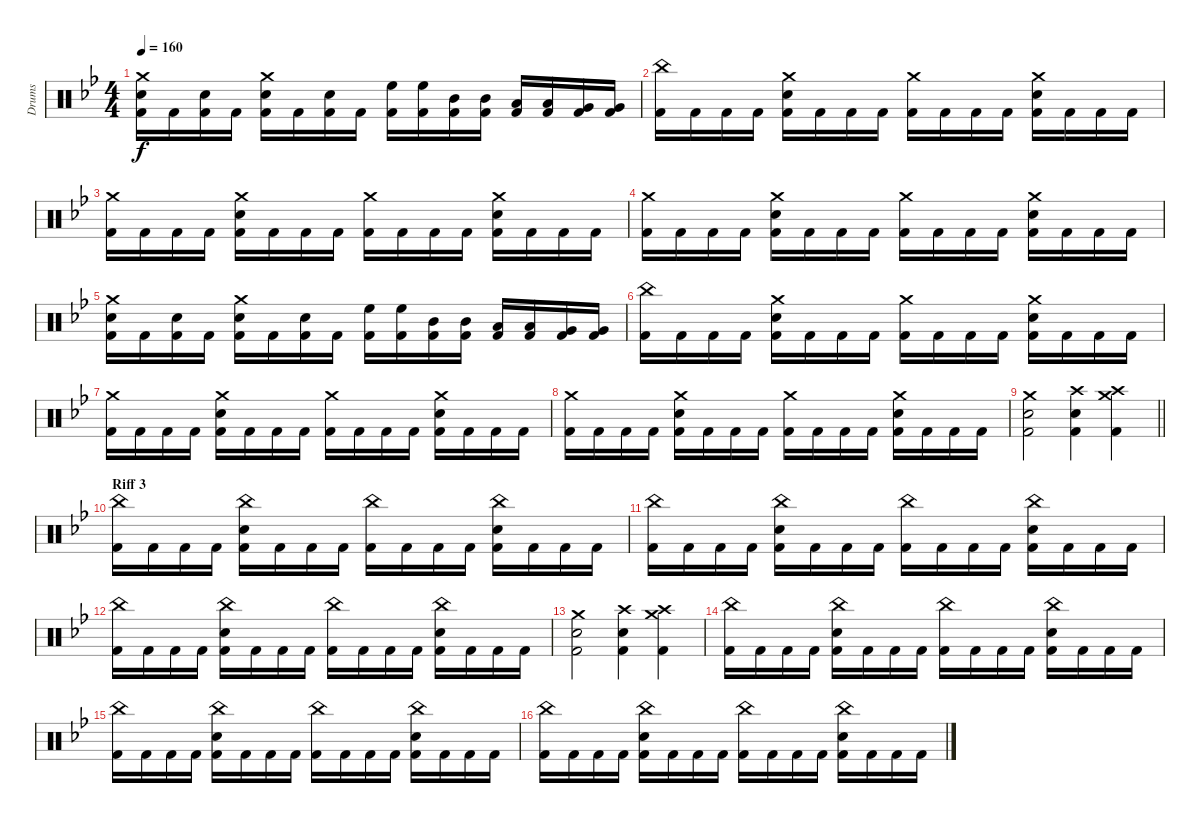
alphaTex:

\track ("Drums" "Drums") {instrument percussion}
\staff {score}
\articulation defaults
\ts (4 4)
\tempo 160
\clef neutral
\ks bb
("Crash medium (hit)" "Electric Snare (hit)" "Kick (hit) 2").16{dy f} "Kick (hit) 2".16 ("Electric Snare (hit)" "Kick (hit) 2").16 "Kick (hit) 2".16 ("Crash medium (hit)" "Electric Snare (hit)" "Kick (hit) 2").16 "Kick (hit) 2".16 ("Electric Snare (hit)" "Kick (hit) 2").16 "Kick (hit) 2".16 ("High Floor Tom (hit)" "Kick (hit) 2").16 ("High Floor Tom (hit)" "Kick (hit) 2").16 ("Mid Tom (hit)" "Kick (hit) 2").16 ("Mid Tom (hit)" "Kick (hit) 2").16 ("Low Tom (hit)" "Kick (hit) 2").16 ("Low Tom (hit)" "Kick (hit) 2").16 ("Very Low Tom (hit)" "Kick (hit) 2").16 ("Very Low Tom (hit)" "Kick (hit) 2").16 |
("China (hit)" "Kick (hit) 2").16 "Kick (hit) 2".16 "Kick (hit) 2".16 "Kick (hit) 2".16 ("Crash medium (hit)" "Electric Snare (hit)" "Kick (hit) 2").16 "Kick (hit) 2".16 "Kick (hit) 2".16 "Kick (hit) 2".16 ("Crash medium (hit)" "Kick (hit) 2").16 "Kick (hit) 2".16 "Kick (hit) 2".16 "Kick (hit) 2".16 ("Crash medium (hit)" "Electric Snare (hit)" "Kick (hit) 2").16 "Kick (hit) 2".16 "Kick (hit) 2".16 "Kick (hit) 2".16 |
("Crash medium (hit)" "Kick (hit) 2").16 "Kick (hit) 2".16 "Kick (hit) 2".16 "Kick (hit) 2".16 ("Crash medium (hit)" "Electric Snare (hit)" "Kick (hit) 2").16 "Kick (hit) 2".16 "Kick (hit) 2".16 "Kick (hit) 2".16 ("Crash medium (hit)" "Kick (hit) 2").16 "Kick (hit) 2".16 "Kick (hit) 2".16 "Kick (hit) 2".16 ("Crash medium (hit)" "Electric Snare (hit)" "Kick (hit) 2").16 "Kick (hit) 2".16 "Kick (hit) 2".16 "Kick (hit) 2".16 |
("Crash medium (hit)" "Kick (hit) 2").16 "Kick (hit) 2".16 "Kick (hit) 2".16 "Kick (hit) 2".16 ("Crash medium (hit)" "Electric Snare (hit)" "Kick (hit) 2").16 "Kick (hit) 2".16 "Kick (hit) 2".16 "Kick (hit) 2".16 ("Crash medium (hit)" "Kick (hit) 2").16 "Kick (hit) 2".16 "Kick (hit) 2".16 "Kick (hit) 2".16 ("Crash medium (hit)" "Electric Snare (hit)" "Kick (hit) 2").16 "Kick (hit) 2".16 "Kick (hit) 2".16 "Kick (hit) 2".16 |
("Crash medium (hit)" "Electric Snare (hit)" "Kick (hit) 2").16 "Kick (hit) 2".16 ("Electric Snare (hit)" "Kick (hit) 2").16 "Kick (hit) 2".16 ("Crash medium (hit)" "Electric Snare (hit)" "Kick (hit) 2").16 "Kick (hit) 2".16 ("Electric Snare (hit)" "Kick (hit) 2").16 "Kick (hit) 2".16 ("High Floor Tom (hit)" "Kick (hit) 2").16 ("High Floor Tom (hit)" "Kick (hit) 2").16 ("Mid Tom (hit)" "Kick (hit) 2").16 ("Mid Tom (hit)" "Kick (hit) 2").16 ("Low Tom (hit)" "Kick (hit) 2").16 ("Low Tom (hit)" "Kick (hit) 2").16 ("Very Low Tom (hit)" "Kick (hit) 2").16 ("Very Low Tom (hit)" "Kick (hit) 2").16 |
("China (hit)" "Kick (hit) 2").16 "Kick (hit) 2".16 "Kick (hit) 2".16 "Kick (hit) 2".16 ("Crash medium (hit)" "Electric Snare (hit)" "Kick (hit) 2").16 "Kick (hit) 2".16 "Kick (hit) 2".16 "Kick (hit) 2".16 ("Crash medium (hit)" "Kick (hit) 2").16 "Kick (hit) 2".16 "Kick (hit) 2".16 "Kick (hit) 2".16 ("Crash medium (hit)" "Electric Snare (hit)" "Kick (hit) 2").16 "Kick (hit) 2".16 "Kick (hit) 2".16 "Kick (hit) 2".16 |
("Crash medium (hit)" "Kick (hit) 2").16 "Kick (hit) 2".16 "Kick (hit) 2".16 "Kick (hit) 2".16 ("Crash medium (hit)" "Electric Snare (hit)" "Kick (hit) 2").16 "Kick (hit) 2".16 "Kick (hit) 2".16 "Kick (hit) 2".16 ("Crash medium (hit)" "Kick (hit) 2").16 "Kick (hit) 2".16 "Kick (hit) 2".16 "Kick (hit) 2".16 ("Crash medium (hit)" "Electric Snare (hit)" "Kick (hit) 2").16 "Kick (hit) 2".16 "Kick (hit) 2".16 "Kick (hit) 2".16 |
("Crash medium (hit)" "Kick (hit) 2").16 "Kick (hit) 2".16 "Kick (hit) 2".16 "Kick (hit) 2".16 ("Crash medium (hit)" "Electric Snare (hit)" "Kick (hit) 2").16 "Kick (hit) 2".16 "Kick (hit) 2".16 "Kick (hit) 2".16 ("Crash medium (hit)" "Kick (hit) 2").16 "Kick (hit) 2".16 "Kick (hit) 2".16 "Kick (hit) 2".16 ("Crash medium (hit)" "Electric Snare (hit)" "Kick (hit) 2").16 "Kick (hit) 2".16 "Kick (hit) 2".16 "Kick (hit) 2".16 |
\barLineRight lightlight
("Kick (hit) 2" "Crash medium (hit)" "Electric Snare (hit)").2 ("Kick (hit) 2" "Crash high (hit)" "Electric Snare (hit)").4 ("Kick (hit) 2" "Crash medium (hit)" "Crash high (hit)").4 |
\section ("" "Riff 3")
("China (hit)" "Kick (hit) 2").16 "Kick (hit) 2".16 "Kick (hit) 2".16 "Kick (hit) 2".16 ("China (hit)" "Electric Snare (hit)" "Kick (hit) 2").16 "Kick (hit) 2".16 "Kick (hit) 2".16 "Kick (hit) 2".16 ("China (hit)" "Kick (hit) 2").16 "Kick (hit) 2".16 "Kick (hit) 2".16 "Kick (hit) 2".16 ("China (hit)" "Electric Snare (hit)" "Kick (hit) 2").16 "Kick (hit) 2".16 "Kick (hit) 2".16 "Kick (hit) 2".16 |
("China (hit)" "Kick (hit) 2").16 "Kick (hit) 2".16 "Kick (hit) 2".16 "Kick (hit) 2".16 ("China (hit)" "Electric Snare (hit)" "Kick (hit) 2").16 "Kick (hit) 2".16 "Kick (hit) 2".16 "Kick (hit) 2".16 ("China (hit)" "Kick (hit) 2").16 "Kick (hit) 2".16 "Kick (hit) 2".16 "Kick (hit) 2".16 ("China (hit)" "Electric Snare (hit)" "Kick (hit) 2").16 "Kick (hit) 2".16 "Kick (hit) 2".16 "Kick (hit) 2".16 |
("China (hit)" "Kick (hit) 2").16 "Kick (hit) 2".16 "Kick (hit) 2".16 "Kick (hit) 2".16 ("China (hit)" "Electric Snare (hit)" "Kick (hit) 2").16 "Kick (hit) 2".16 "Kick (hit) 2".16 "Kick (hit) 2".16 ("China (hit)" "Kick (hit) 2").16 "Kick (hit) 2".16 "Kick (hit) 2".16 "Kick (hit) 2".16 ("China (hit)" "Electric Snare (hit)" "Kick (hit) 2").16 "Kick (hit) 2".16 "Kick (hit) 2".16 "Kick (hit) 2".16 |
("Kick (hit) 2" "Crash medium (hit)" "Electric Snare (hit)").2 ("Kick (hit) 2" "Crash high (hit)" "Electric Snare (hit)").4 ("Kick (hit) 2" "Crash medium (hit)" "Crash high (hit)").4 |
("China (hit)" "Kick (hit) 2").16 "Kick (hit) 2".16 "Kick (hit) 2".16 "Kick (hit) 2".16 ("China (hit)" "Electric Snare (hit)" "Kick (hit) 2").16 "Kick (hit) 2".16 "Kick (hit) 2".16 "Kick (hit) 2".16 ("China (hit)" "Kick (hit) 2").16 "Kick (hit) 2".16 "Kick (hit) 2".16 "Kick (hit) 2".16 ("China (hit)" "Electric Snare (hit)" "Kick (hit) 2").16 "Kick (hit) 2".16 "Kick (hit) 2".16 "Kick (hit) 2".16 |
("China (hit)" "Kick (hit) 2").16 "Kick (hit) 2".16 "Kick (hit) 2".16 "Kick (hit) 2".16 ("China (hit)" "Electric Snare (hit)" "Kick (hit) 2").16 "Kick (hit) 2".16 "Kick (hit) 2".16 "Kick (hit) 2".16 ("China (hit)" "Kick (hit) 2").16 "Kick (hit) 2".16 "Kick (hit) 2".16 "Kick (hit) 2".16 ("China (hit)" "Electric Snare (hit)" "Kick (hit) 2").16 "Kick (hit) 2".16 "Kick (hit) 2".16 "Kick (hit) 2".16 |
("China (hit)" "Kick (hit) 2").16 "Kick (hit) 2".16 "Kick (hit) 2".16 "Kick (hit) 2".16 ("China (hit)" "Electric Snare (hit)" "Kick (hit) 2").16 "Kick (hit) 2".16 "Kick (hit) 2".16 "Kick (hit) 2".16 ("China (hit)" "Kick (hit) 2").16 "Kick (hit) 2".16 "Kick (hit) 2".16 "Kick (hit) 2".16 ("China (hit)" "Electric Snare (hit)" "Kick (hit) 2").16 "Kick (hit) 2".16 "Kick (hit) 2".16 "Kick (hit) 2".16
